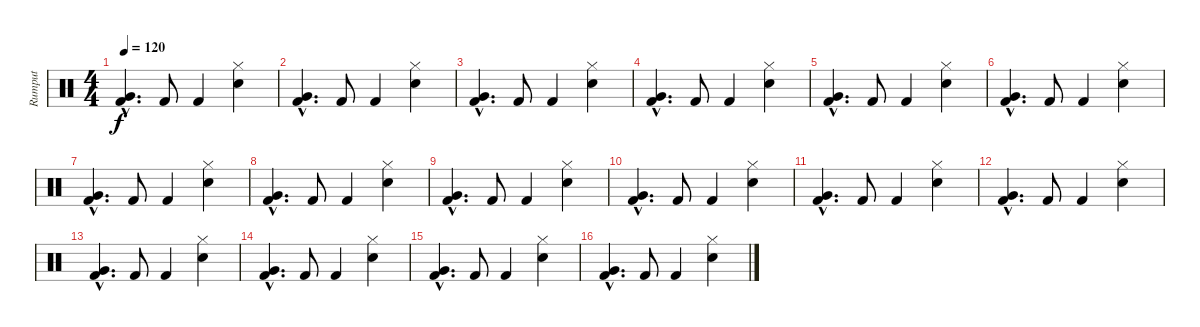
\track ("Rumput" "Rumput") {instrument percussion}
\staff {score}
\articulation defaults
\ts (4 4)
\tempo 120
\clef neutral
\ks c
("Very Low Tom (hit)"{hac} "Kick (hit) 2"{hac}).4{d dy f} "Kick (hit) 2".8 "Kick (hit) 2".4 ("Hi-Hat (closed)" "Snare (hit) 2").4 |
("Very Low Tom (hit)"{hac} "Kick (hit) 2"{hac}).4{d} "Kick (hit) 2".8 "Kick (hit) 2".4 ("Hi-Hat (closed)" "Snare (hit) 2").4 |
("Very Low Tom (hit)"{hac} "Kick (hit) 2"{hac}).4{d} "Kick (hit) 2".8 "Kick (hit) 2".4 ("Hi-Hat (closed)" "Snare (hit) 2").4 |
("Very Low Tom (hit)"{hac} "Kick (hit) 2"{hac}).4{d} "Kick (hit) 2".8 "Kick (hit) 2".4 ("Hi-Hat (closed)" "Snare (hit) 2").4 |
("Very Low Tom (hit)"{hac} "Kick (hit) 2"{hac}).4{d} "Kick (hit) 2".8 "Kick (hit) 2".4 ("Hi-Hat (closed)" "Snare (hit) 2").4 |
("Very Low Tom (hit)"{hac} "Kick (hit) 2"{hac}).4{d} "Kick (hit) 2".8 "Kick (hit) 2".4 ("Hi-Hat (closed)" "Snare (hit) 2").4 |
("Very Low Tom (hit)"{hac} "Kick (hit) 2"{hac}).4{d} "Kick (hit) 2".8 "Kick (hit) 2".4 ("Hi-Hat (closed)" "Snare (hit) 2").4 |
("Very Low Tom (hit)"{hac} "Kick (hit) 2"{hac}).4{d} "Kick (hit) 2".8 "Kick (hit) 2".4 ("Hi-Hat (closed)" "Snare (hit) 2").4 |
("Very Low Tom (hit)"{hac} "Kick (hit) 2"{hac}).4{d} "Kick (hit) 2".8 "Kick (hit) 2".4 ("Hi-Hat (closed)" "Snare (hit) 2").4 |
("Very Low Tom (hit)"{hac} "Kick (hit) 2"{hac}).4{d} "Kick (hit) 2".8 "Kick (hit) 2".4 ("Hi-Hat (closed)" "Snare (hit) 2").4 |
("Very Low Tom (hit)"{hac} "Kick (hit) 2"{hac}).4{d} "Kick (hit) 2".8 "Kick (hit) 2".4 ("Hi-Hat (closed)" "Snare (hit) 2").4 |
("Very Low Tom (hit)"{hac} "Kick (hit) 2"{hac}).4{d} "Kick (hit) 2".8 "Kick (hit) 2".4 ("Hi-Hat (closed)" "Snare (hit) 2").4 |
("Very Low Tom (hit)"{hac} "Kick (hit) 2"{hac}).4{d} "Kick (hit) 2".8 "Kick (hit) 2".4 ("Hi-Hat (closed)" "Snare (hit) 2").4 |
("Very Low Tom (hit)"{hac} "Kick (hit) 2"{hac}).4{d} "Kick (hit) 2".8 "Kick (hit) 2".4 ("Hi-Hat (closed)" "Snare (hit) 2").4 |
("Very Low Tom (hit)"{hac} "Kick (hit) 2"{hac}).4{d} "Kick (hit) 2".8 "Kick (hit) 2".4 ("Hi-Hat (closed)" "Snare (hit) 2").4 |
("Very Low Tom (hit)"{hac} "Kick (hit) 2"{hac}).4{d} "Kick (hit) 2".8 "Kick (hit) 2".4 ("Hi-Hat (closed)" "Snare (hit) 2").4
